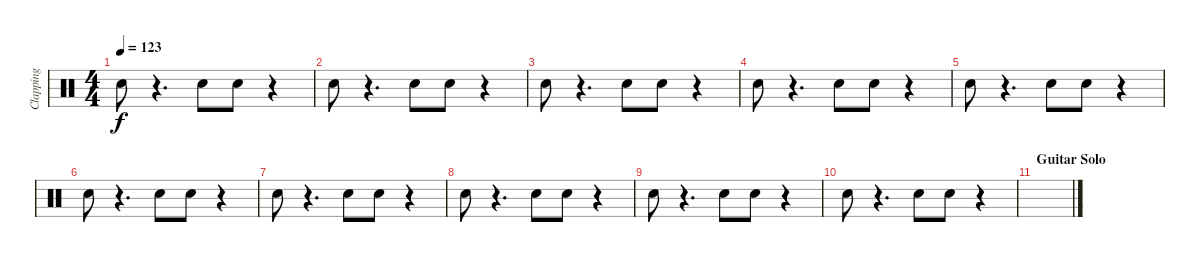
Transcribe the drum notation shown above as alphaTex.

\track ("Clapping" "Clapping") {instrument percussion}
\staff {score}
\articulation defaults
\ts (4 4)
\tempo 123
\clef neutral
\ks c "Hand Clap (hit)".8{dy f}
r.4{d} "Hand Clap (hit)".8 "Hand Clap (hit)".8 r.4 |
"Hand Clap (hit)".8 r.4{d} "Hand Clap (hit)".8 "Hand Clap (hit)".8 r.4 |
"Hand Clap (hit)".8 r.4{d} "Hand Clap (hit)".8 "Hand Clap (hit)".8 r.4 |
"Hand Clap (hit)".8 r.4{d} "Hand Clap (hit)".8 "Hand Clap (hit)".8 r.4 |
"Hand Clap (hit)".8 r.4{d} "Hand Clap (hit)".8 "Hand Clap (hit)".8 r.4 |
"Hand Clap (hit)".8 r.4{d} "Hand Clap (hit)".8 "Hand Clap (hit)".8 r.4 |
"Hand Clap (hit)".8 r.4{d} "Hand Clap (hit)".8 "Hand Clap (hit)".8 r.4 |
"Hand Clap (hit)".8 r.4{d} "Hand Clap (hit)".8 "Hand Clap (hit)".8 r.4 |
"Hand Clap (hit)".8 r.4{d} "Hand Clap (hit)".8 "Hand Clap (hit)".8 r.4 |
"Hand Clap (hit)".8 r.4{d} "Hand Clap (hit)".8 "Hand Clap (hit)".8 r.4 |
\section ("" "Guitar Solo")
